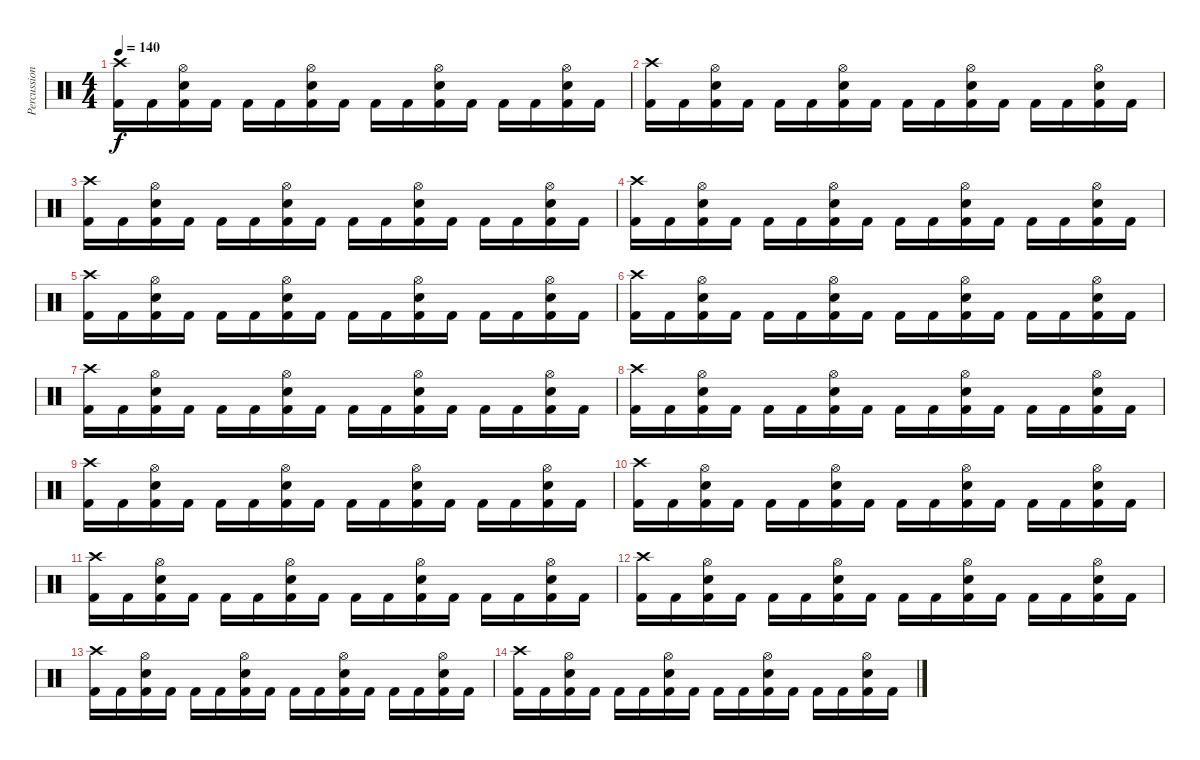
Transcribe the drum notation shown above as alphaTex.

\track ("Percussion" "Percussion") {instrument percussion}
\staff {score}
\articulation defaults
\ts (4 4)
\tempo 140
\clef neutral
\ks c
("Crash high (hit)" "Kick (hit) 2").16{dy f} "Kick (hit) 2".16 ("Electric Snare (hit)" "Kick (hit) 2" "Hi-Hat (open)").16 "Kick (hit) 2".16 "Kick (hit) 2".16 "Kick (hit) 2".16 ("Electric Snare (hit)" "Kick (hit) 2" "Hi-Hat (open)").16 "Kick (hit) 2".16 "Kick (hit) 2".16 "Kick (hit) 2".16 ("Electric Snare (hit)" "Kick (hit) 2" "Hi-Hat (open)").16 "Kick (hit) 2".16 "Kick (hit) 2".16 "Kick (hit) 2".16 ("Hi-Hat (open)" "Electric Snare (hit)" "Kick (hit) 2").16 "Kick (hit) 2".16 |
("Crash high (hit)" "Kick (hit) 2").16 "Kick (hit) 2".16 ("Electric Snare (hit)" "Kick (hit) 2" "Hi-Hat (open)").16 "Kick (hit) 2".16 "Kick (hit) 2".16 "Kick (hit) 2".16 ("Electric Snare (hit)" "Kick (hit) 2" "Hi-Hat (open)").16 "Kick (hit) 2".16 "Kick (hit) 2".16 "Kick (hit) 2".16 ("Electric Snare (hit)" "Kick (hit) 2" "Hi-Hat (open)").16 "Kick (hit) 2".16 "Kick (hit) 2".16 "Kick (hit) 2".16 ("Hi-Hat (open)" "Electric Snare (hit)" "Kick (hit) 2").16 "Kick (hit) 2".16 |
("Crash high (hit)" "Kick (hit) 2").16 "Kick (hit) 2".16 ("Electric Snare (hit)" "Kick (hit) 2" "Hi-Hat (open)").16 "Kick (hit) 2".16 "Kick (hit) 2".16 "Kick (hit) 2".16 ("Electric Snare (hit)" "Kick (hit) 2" "Hi-Hat (open)").16 "Kick (hit) 2".16 "Kick (hit) 2".16 "Kick (hit) 2".16 ("Electric Snare (hit)" "Kick (hit) 2" "Hi-Hat (open)").16 "Kick (hit) 2".16 "Kick (hit) 2".16 "Kick (hit) 2".16 ("Hi-Hat (open)" "Electric Snare (hit)" "Kick (hit) 2").16 "Kick (hit) 2".16 |
("Crash high (hit)" "Kick (hit) 2").16 "Kick (hit) 2".16 ("Electric Snare (hit)" "Kick (hit) 2" "Hi-Hat (open)").16 "Kick (hit) 2".16 "Kick (hit) 2".16 "Kick (hit) 2".16 ("Electric Snare (hit)" "Kick (hit) 2" "Hi-Hat (open)").16 "Kick (hit) 2".16 "Kick (hit) 2".16 "Kick (hit) 2".16 ("Electric Snare (hit)" "Kick (hit) 2" "Hi-Hat (open)").16 "Kick (hit) 2".16 "Kick (hit) 2".16 "Kick (hit) 2".16 ("Hi-Hat (open)" "Electric Snare (hit)" "Kick (hit) 2").16 "Kick (hit) 2".16 |
("Crash high (hit)" "Kick (hit) 2").16 "Kick (hit) 2".16 ("Electric Snare (hit)" "Kick (hit) 2" "Hi-Hat (open)").16 "Kick (hit) 2".16 "Kick (hit) 2".16 "Kick (hit) 2".16 ("Electric Snare (hit)" "Kick (hit) 2" "Hi-Hat (open)").16 "Kick (hit) 2".16 "Kick (hit) 2".16 "Kick (hit) 2".16 ("Electric Snare (hit)" "Kick (hit) 2" "Hi-Hat (open)").16 "Kick (hit) 2".16 "Kick (hit) 2".16 "Kick (hit) 2".16 ("Hi-Hat (open)" "Electric Snare (hit)" "Kick (hit) 2").16 "Kick (hit) 2".16 |
("Crash high (hit)" "Kick (hit) 2").16 "Kick (hit) 2".16 ("Electric Snare (hit)" "Kick (hit) 2" "Hi-Hat (open)").16 "Kick (hit) 2".16 "Kick (hit) 2".16 "Kick (hit) 2".16 ("Electric Snare (hit)" "Kick (hit) 2" "Hi-Hat (open)").16 "Kick (hit) 2".16 "Kick (hit) 2".16 "Kick (hit) 2".16 ("Electric Snare (hit)" "Kick (hit) 2" "Hi-Hat (open)").16 "Kick (hit) 2".16 "Kick (hit) 2".16 "Kick (hit) 2".16 ("Hi-Hat (open)" "Electric Snare (hit)" "Kick (hit) 2").16 "Kick (hit) 2".16 |
("Crash high (hit)" "Kick (hit) 2").16 "Kick (hit) 2".16 ("Electric Snare (hit)" "Kick (hit) 2" "Hi-Hat (open)").16 "Kick (hit) 2".16 "Kick (hit) 2".16 "Kick (hit) 2".16 ("Electric Snare (hit)" "Kick (hit) 2" "Hi-Hat (open)").16 "Kick (hit) 2".16 "Kick (hit) 2".16 "Kick (hit) 2".16 ("Electric Snare (hit)" "Kick (hit) 2" "Hi-Hat (open)").16 "Kick (hit) 2".16 "Kick (hit) 2".16 "Kick (hit) 2".16 ("Hi-Hat (open)" "Electric Snare (hit)" "Kick (hit) 2").16 "Kick (hit) 2".16 |
("Crash high (hit)" "Kick (hit) 2").16 "Kick (hit) 2".16 ("Electric Snare (hit)" "Kick (hit) 2" "Hi-Hat (open)").16 "Kick (hit) 2".16 "Kick (hit) 2".16 "Kick (hit) 2".16 ("Electric Snare (hit)" "Kick (hit) 2" "Hi-Hat (open)").16 "Kick (hit) 2".16 "Kick (hit) 2".16 "Kick (hit) 2".16 ("Electric Snare (hit)" "Kick (hit) 2" "Hi-Hat (open)").16 "Kick (hit) 2".16 "Kick (hit) 2".16 "Kick (hit) 2".16 ("Hi-Hat (open)" "Electric Snare (hit)" "Kick (hit) 2").16 "Kick (hit) 2".16 |
("Crash high (hit)" "Kick (hit) 2").16 "Kick (hit) 2".16 ("Electric Snare (hit)" "Kick (hit) 2" "Hi-Hat (open)").16 "Kick (hit) 2".16 "Kick (hit) 2".16 "Kick (hit) 2".16 ("Electric Snare (hit)" "Kick (hit) 2" "Hi-Hat (open)").16 "Kick (hit) 2".16 "Kick (hit) 2".16 "Kick (hit) 2".16 ("Electric Snare (hit)" "Kick (hit) 2" "Hi-Hat (open)").16 "Kick (hit) 2".16 "Kick (hit) 2".16 "Kick (hit) 2".16 ("Hi-Hat (open)" "Electric Snare (hit)" "Kick (hit) 2").16 "Kick (hit) 2".16 |
("Crash high (hit)" "Kick (hit) 2").16 "Kick (hit) 2".16 ("Electric Snare (hit)" "Kick (hit) 2" "Hi-Hat (open)").16 "Kick (hit) 2".16 "Kick (hit) 2".16 "Kick (hit) 2".16 ("Electric Snare (hit)" "Kick (hit) 2" "Hi-Hat (open)").16 "Kick (hit) 2".16 "Kick (hit) 2".16 "Kick (hit) 2".16 ("Electric Snare (hit)" "Kick (hit) 2" "Hi-Hat (open)").16 "Kick (hit) 2".16 "Kick (hit) 2".16 "Kick (hit) 2".16 ("Hi-Hat (open)" "Electric Snare (hit)" "Kick (hit) 2").16 "Kick (hit) 2".16 |
("Crash high (hit)" "Kick (hit) 2").16 "Kick (hit) 2".16 ("Electric Snare (hit)" "Kick (hit) 2" "Hi-Hat (open)").16 "Kick (hit) 2".16 "Kick (hit) 2".16 "Kick (hit) 2".16 ("Electric Snare (hit)" "Kick (hit) 2" "Hi-Hat (open)").16 "Kick (hit) 2".16 "Kick (hit) 2".16 "Kick (hit) 2".16 ("Electric Snare (hit)" "Kick (hit) 2" "Hi-Hat (open)").16 "Kick (hit) 2".16 "Kick (hit) 2".16 "Kick (hit) 2".16 ("Hi-Hat (open)" "Electric Snare (hit)" "Kick (hit) 2").16 "Kick (hit) 2".16 |
("Crash high (hit)" "Kick (hit) 2").16 "Kick (hit) 2".16 ("Electric Snare (hit)" "Kick (hit) 2" "Hi-Hat (open)").16 "Kick (hit) 2".16 "Kick (hit) 2".16 "Kick (hit) 2".16 ("Electric Snare (hit)" "Kick (hit) 2" "Hi-Hat (open)").16 "Kick (hit) 2".16 "Kick (hit) 2".16 "Kick (hit) 2".16 ("Electric Snare (hit)" "Kick (hit) 2" "Hi-Hat (open)").16 "Kick (hit) 2".16 "Kick (hit) 2".16 "Kick (hit) 2".16 ("Hi-Hat (open)" "Electric Snare (hit)" "Kick (hit) 2").16 "Kick (hit) 2".16 |
("Crash high (hit)" "Kick (hit) 2").16 "Kick (hit) 2".16 ("Electric Snare (hit)" "Kick (hit) 2" "Hi-Hat (open)").16 "Kick (hit) 2".16 "Kick (hit) 2".16 "Kick (hit) 2".16 ("Electric Snare (hit)" "Kick (hit) 2" "Hi-Hat (open)").16 "Kick (hit) 2".16 "Kick (hit) 2".16 "Kick (hit) 2".16 ("Electric Snare (hit)" "Kick (hit) 2" "Hi-Hat (open)").16 "Kick (hit) 2".16 "Kick (hit) 2".16 "Kick (hit) 2".16 ("Hi-Hat (open)" "Electric Snare (hit)" "Kick (hit) 2").16 "Kick (hit) 2".16 |
("Crash high (hit)" "Kick (hit) 2").16 "Kick (hit) 2".16 ("Electric Snare (hit)" "Kick (hit) 2" "Hi-Hat (open)").16 "Kick (hit) 2".16 "Kick (hit) 2".16 "Kick (hit) 2".16 ("Electric Snare (hit)" "Kick (hit) 2" "Hi-Hat (open)").16 "Kick (hit) 2".16 "Kick (hit) 2".16 "Kick (hit) 2".16 ("Electric Snare (hit)" "Kick (hit) 2" "Hi-Hat (open)").16 "Kick (hit) 2".16 "Kick (hit) 2".16 "Kick (hit) 2".16 ("Hi-Hat (open)" "Electric Snare (hit)" "Kick (hit) 2").16 "Kick (hit) 2".16
